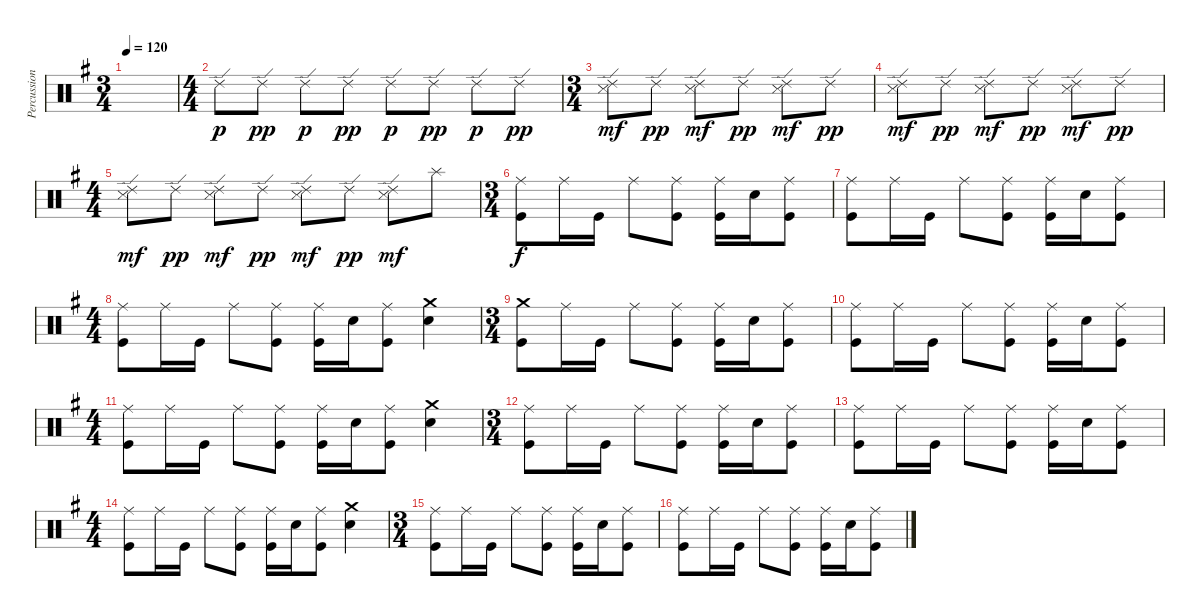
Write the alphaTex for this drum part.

\track ("Percussion" "Percussion") {instrument percussion}
\staff {score}
\articulation defaults
\ts (3 4)
\tempo 120
\clef neutral
\ks g
|
\ts (4 4)
"Ride (edge) 2".8{dy p} "Ride (edge) 2".8{dy pp} "Ride (edge) 2".8{dy p} "Ride (edge) 2".8{dy pp} "Ride (edge) 2".8{dy p} "Ride (edge) 2".8{dy pp} "Ride (edge) 2".8{dy p} "Ride (edge) 2".8{dy pp} |
\ts (3 4)
("Ride (edge) 2" "Snare (side stick) 3").8{dy mf} "Ride (edge) 2".8{dy pp} ("Ride (edge) 2" "Snare (side stick) 3").8{dy mf} "Ride (edge) 2".8{dy pp} ("Ride (edge) 2" "Snare (side stick) 3").8{dy mf} "Ride (edge) 2".8{dy pp} |
("Ride (edge) 2" "Snare (side stick) 3").8{dy mf} "Ride (edge) 2".8{dy pp} ("Ride (edge) 2" "Snare (side stick) 3").8{dy mf} "Ride (edge) 2".8{dy pp} ("Ride (edge) 2" "Snare (side stick) 3").8{dy mf} "Ride (edge) 2".8{dy pp} |
\ts (4 4)
("Ride (edge) 2" "Snare (side stick) 3").8{dy mf} "Ride (edge) 2".8{dy pp} ("Ride (edge) 2" "Snare (side stick) 3").8{dy mf} "Ride (edge) 2".8{dy pp} ("Ride (edge) 2" "Snare (side stick) 3").8{dy mf} "Ride (edge) 2".8{dy pp} ("Ride (edge) 2" "Snare (side stick) 3").8{dy mf} "Splash (hit)".8 |
\ts (3 4)
("Ride (middle)" "Kick (hit)").8{dy f} "Ride (middle)".16 "Kick (hit)".16 "Ride (middle)".8 ("Ride (middle)" "Kick (hit)").8 ("Ride (middle)" "Kick (hit)").16 "Snare (hit) 2".16 ("Ride (middle)" "Kick (hit)").8 |
("Ride (middle)" "Kick (hit)").8 "Ride (middle)".16 "Kick (hit)".16 "Ride (middle)".8 ("Ride (middle)" "Kick (hit)").8 ("Ride (middle)" "Kick (hit)").16 "Snare (hit) 2".16 ("Ride (middle)" "Kick (hit)").8 |
\ts (4 4)
("Ride (middle)" "Kick (hit)").8 "Ride (middle)".16 "Kick (hit)".16 "Ride (middle)".8 ("Ride (middle)" "Kick (hit)").8 ("Ride (middle)" "Kick (hit)").16 "Snare (hit) 2".16 ("Ride (middle)" "Kick (hit)").8 ("Crash medium (hit)" "Snare (hit) 2").4 |
\ts (3 4)
("Crash medium (hit)" "Kick (hit)").8 "Ride (middle)".16 "Kick (hit)".16 "Ride (middle)".8 ("Ride (middle)" "Kick (hit)").8 ("Ride (middle)" "Kick (hit)").16 "Snare (hit) 2".16 ("Ride (middle)" "Kick (hit)").8 |
("Ride (middle)" "Kick (hit)").8 "Ride (middle)".16 "Kick (hit)".16 "Ride (middle)".8 ("Ride (middle)" "Kick (hit)").8 ("Ride (middle)" "Kick (hit)").16 "Snare (hit) 2".16 ("Ride (middle)" "Kick (hit)").8 |
\ts (4 4)
("Ride (middle)" "Kick (hit)").8 "Ride (middle)".16 "Kick (hit)".16 "Ride (middle)".8 ("Ride (middle)" "Kick (hit)").8 ("Ride (middle)" "Kick (hit)").16 "Snare (hit) 2".16 ("Ride (middle)" "Kick (hit)").8 ("Crash medium (hit)" "Snare (hit) 2").4 |
\ts (3 4)
("Ride (middle)" "Kick (hit)").8 "Ride (middle)".16 "Kick (hit)".16 "Ride (middle)".8 ("Ride (middle)" "Kick (hit)").8 ("Ride (middle)" "Kick (hit)").16 "Snare (hit) 2".16 ("Ride (middle)" "Kick (hit)").8 |
("Ride (middle)" "Kick (hit)").8 "Ride (middle)".16 "Kick (hit)".16 "Ride (middle)".8 ("Ride (middle)" "Kick (hit)").8 ("Ride (middle)" "Kick (hit)").16 "Snare (hit) 2".16 ("Ride (middle)" "Kick (hit)").8 |
\ts (4 4)
("Ride (middle)" "Kick (hit)").8 "Ride (middle)".16 "Kick (hit)".16 "Ride (middle)".8 ("Ride (middle)" "Kick (hit)").8 ("Ride (middle)" "Kick (hit)").16 "Snare (hit) 2".16 ("Ride (middle)" "Kick (hit)").8 ("Crash medium (hit)" "Snare (hit) 2").4 |
\ts (3 4)
("Ride (middle)" "Kick (hit)").8 "Ride (middle)".16 "Kick (hit)".16 "Ride (middle)".8 ("Ride (middle)" "Kick (hit)").8 ("Ride (middle)" "Kick (hit)").16 "Snare (hit) 2".16 ("Ride (middle)" "Kick (hit)").8 |
("Ride (middle)" "Kick (hit)").8 "Ride (middle)".16 "Kick (hit)".16 "Ride (middle)".8 ("Ride (middle)" "Kick (hit)").8 ("Ride (middle)" "Kick (hit)").16 "Snare (hit) 2".16 ("Ride (middle)" "Kick (hit)").8
